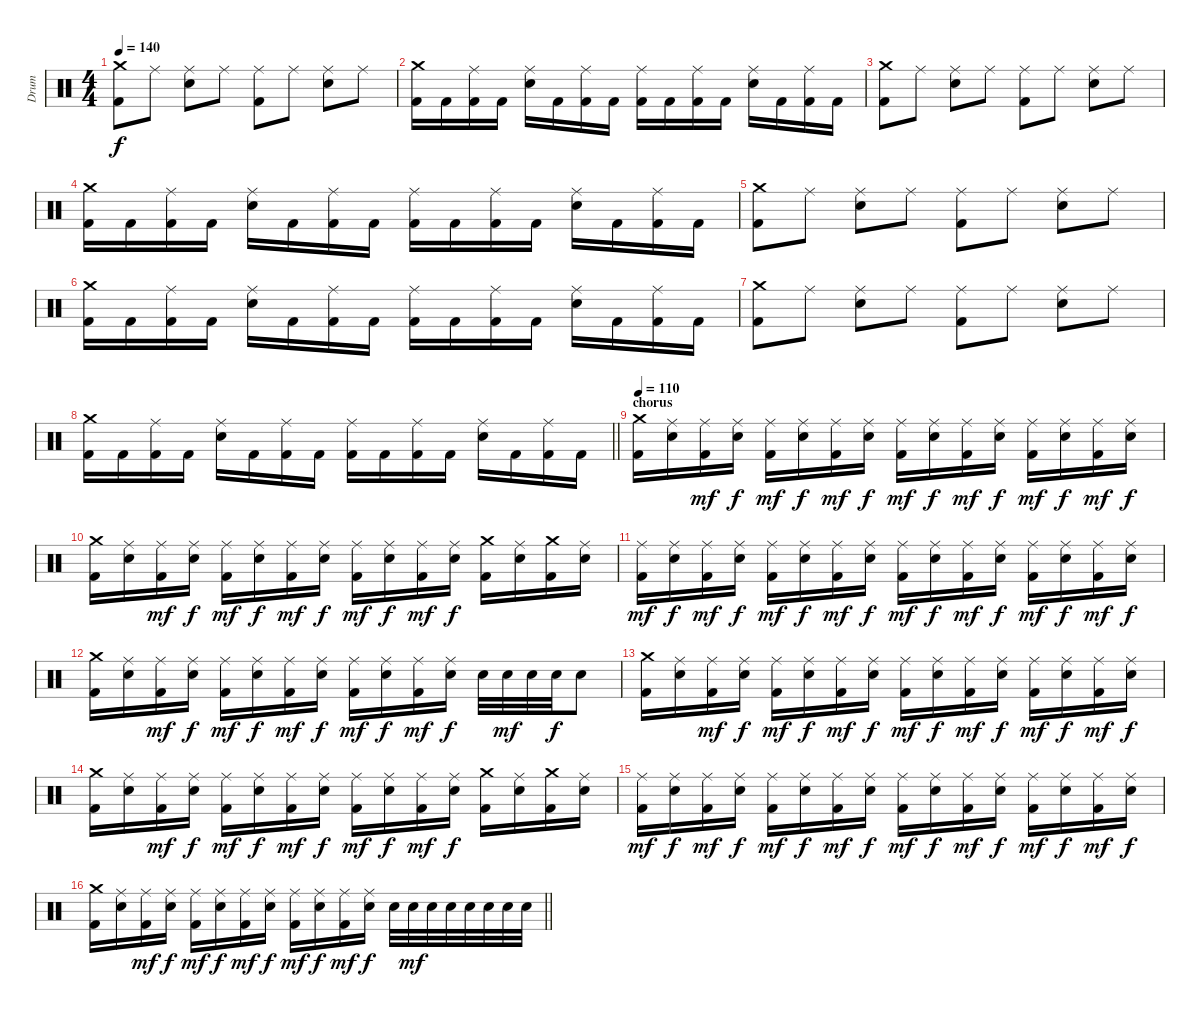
\track ("Drum" "Drum") {instrument percussion}
\staff {score}
\articulation defaults
\ts (4 4)
\tempo 140
\clef neutral
\ks c
("Crash medium (hit)" "Kick (hit) 2").8{dy f} "Ride (middle)".8 ("Ride (middle)" "Snare (hit) 2").8 "Ride (middle)".8 ("Ride (middle)" "Kick (hit) 2").8 "Ride (middle)".8 ("Ride (middle)" "Snare (hit) 2").8 "Ride (middle)".8 |
("Crash medium (hit)" "Kick (hit) 2").16 "Kick (hit) 2".16 ("Ride (middle)" "Kick (hit) 2").16 "Kick (hit) 2".16 ("Ride (middle)" "Snare (hit) 2").16 "Kick (hit) 2".16 ("Ride (middle)" "Kick (hit) 2").16 "Kick (hit) 2".16 ("Ride (middle)" "Kick (hit) 2").16 "Kick (hit) 2".16 ("Ride (middle)" "Kick (hit) 2").16 "Kick (hit) 2".16 ("Ride (middle)" "Snare (hit) 2").16 "Kick (hit) 2".16 ("Ride (middle)" "Kick (hit) 2").16 "Kick (hit) 2".16 |
("Crash medium (hit)" "Kick (hit) 2").8 "Ride (middle)".8 ("Ride (middle)" "Snare (hit) 2").8 "Ride (middle)".8 ("Ride (middle)" "Kick (hit) 2").8 "Ride (middle)".8 ("Ride (middle)" "Snare (hit) 2").8 "Ride (middle)".8 |
("Crash medium (hit)" "Kick (hit) 2").16 "Kick (hit) 2".16 ("Ride (middle)" "Kick (hit) 2").16 "Kick (hit) 2".16 ("Ride (middle)" "Snare (hit) 2").16 "Kick (hit) 2".16 ("Ride (middle)" "Kick (hit) 2").16 "Kick (hit) 2".16 ("Ride (middle)" "Kick (hit) 2").16 "Kick (hit) 2".16 ("Ride (middle)" "Kick (hit) 2").16 "Kick (hit) 2".16 ("Ride (middle)" "Snare (hit) 2").16 "Kick (hit) 2".16 ("Ride (middle)" "Kick (hit) 2").16 "Kick (hit) 2".16 |
("Crash medium (hit)" "Kick (hit) 2").8 "Ride (middle)".8 ("Ride (middle)" "Snare (hit) 2").8 "Ride (middle)".8 ("Ride (middle)" "Kick (hit) 2").8 "Ride (middle)".8 ("Ride (middle)" "Snare (hit) 2").8 "Ride (middle)".8 |
("Crash medium (hit)" "Kick (hit) 2").16 "Kick (hit) 2".16 ("Ride (middle)" "Kick (hit) 2").16 "Kick (hit) 2".16 ("Ride (middle)" "Snare (hit) 2").16 "Kick (hit) 2".16 ("Ride (middle)" "Kick (hit) 2").16 "Kick (hit) 2".16 ("Ride (middle)" "Kick (hit) 2").16 "Kick (hit) 2".16 ("Ride (middle)" "Kick (hit) 2").16 "Kick (hit) 2".16 ("Ride (middle)" "Snare (hit) 2").16 "Kick (hit) 2".16 ("Ride (middle)" "Kick (hit) 2").16 "Kick (hit) 2".16 |
("Crash medium (hit)" "Kick (hit) 2").8 "Ride (middle)".8 ("Ride (middle)" "Snare (hit) 2").8 "Ride (middle)".8 ("Ride (middle)" "Kick (hit) 2").8 "Ride (middle)".8 ("Ride (middle)" "Snare (hit) 2").8 "Ride (middle)".8 |
\barLineRight lightlight
("Crash medium (hit)" "Kick (hit) 2").16 "Kick (hit) 2".16 ("Ride (middle)" "Kick (hit) 2").16 "Kick (hit) 2".16 ("Ride (middle)" "Snare (hit) 2").16 "Kick (hit) 2".16 ("Ride (middle)" "Kick (hit) 2").16 "Kick (hit) 2".16 ("Ride (middle)" "Kick (hit) 2").16 "Kick (hit) 2".16 ("Ride (middle)" "Kick (hit) 2").16 "Kick (hit) 2".16 ("Ride (middle)" "Snare (hit) 2").16 "Kick (hit) 2".16 ("Ride (middle)" "Kick (hit) 2").16 "Kick (hit) 2".16 |
\section ("" "chorus")
\tempo 110
("Crash medium (hit)" "Kick (hit) 2").16 ("Ride (middle)" "Snare (hit) 2").16 ("Ride (middle)" "Kick (hit) 2").16{dy mf} ("Ride (middle)" "Snare (hit) 2").16{dy f} ("Ride (middle)" "Kick (hit) 2").16{dy mf} ("Ride (middle)" "Snare (hit) 2").16{dy f} ("Ride (middle)" "Kick (hit) 2").16{dy mf} ("Ride (middle)" "Snare (hit) 2").16{dy f} ("Ride (middle)" "Kick (hit) 2").16{dy mf} ("Ride (middle)" "Snare (hit) 2").16{dy f} ("Ride (middle)" "Kick (hit) 2").16{dy mf} ("Ride (middle)" "Snare (hit) 2").16{dy f} ("Ride (middle)" "Kick (hit) 2").16{dy mf} ("Ride (middle)" "Snare (hit) 2").16{dy f} ("Ride (middle)" "Kick (hit) 2").16{dy mf} ("Ride (middle)" "Snare (hit) 2").16{dy f} |
("Crash medium (hit)" "Kick (hit) 2").16 ("Ride (middle)" "Snare (hit) 2").16 ("Ride (middle)" "Kick (hit) 2").16{dy mf} ("Ride (middle)" "Snare (hit) 2").16{dy f} ("Ride (middle)" "Kick (hit) 2").16{dy mf} ("Ride (middle)" "Snare (hit) 2").16{dy f} ("Ride (middle)" "Kick (hit) 2").16{dy mf} ("Ride (middle)" "Snare (hit) 2").16{dy f} ("Ride (middle)" "Kick (hit) 2").16{dy mf} ("Ride (middle)" "Snare (hit) 2").16{dy f} ("Ride (middle)" "Kick (hit) 2").16{dy mf} ("Ride (middle)" "Snare (hit) 2").16{dy f} ("Crash medium (hit)" "Kick (hit) 2").16 ("Ride (middle)" "Snare (hit) 2").16 ("Crash medium (hit)" "Kick (hit) 2").16 ("Ride (middle)" "Snare (hit) 2").16 |
("Ride (middle)" "Kick (hit) 2").16{dy mf} ("Ride (middle)" "Snare (hit) 2").16{dy f} ("Ride (middle)" "Kick (hit) 2").16{dy mf} ("Ride (middle)" "Snare (hit) 2").16{dy f} ("Ride (middle)" "Kick (hit) 2").16{dy mf} ("Ride (middle)" "Snare (hit) 2").16{dy f} ("Ride (middle)" "Kick (hit) 2").16{dy mf} ("Ride (middle)" "Snare (hit) 2").16{dy f} ("Ride (middle)" "Kick (hit) 2").16{dy mf} ("Ride (middle)" "Snare (hit) 2").16{dy f} ("Ride (middle)" "Kick (hit) 2").16{dy mf} ("Ride (middle)" "Snare (hit) 2").16{dy f} ("Ride (middle)" "Kick (hit) 2").16{dy mf} ("Ride (middle)" "Snare (hit) 2").16{dy f} ("Ride (middle)" "Kick (hit) 2").16{dy mf} ("Ride (middle)" "Snare (hit) 2").16{dy f} |
("Crash medium (hit)" "Kick (hit) 2").16 ("Ride (middle)" "Snare (hit) 2").16 ("Ride (middle)" "Kick (hit) 2").16{dy mf} ("Ride (middle)" "Snare (hit) 2").16{dy f} ("Ride (middle)" "Kick (hit) 2").16{dy mf} ("Ride (middle)" "Snare (hit) 2").16{dy f} ("Ride (middle)" "Kick (hit) 2").16{dy mf} ("Ride (middle)" "Snare (hit) 2").16{dy f} ("Ride (middle)" "Kick (hit) 2").16{dy mf} ("Ride (middle)" "Snare (hit) 2").16{dy f} ("Ride (middle)" "Kick (hit) 2").16{dy mf} ("Ride (middle)" "Snare (hit) 2").16{dy f} "Snare (hit) 2".32 "Snare (hit) 2".32{dy mf} "Snare (hit) 2".32 "Snare (hit) 2".32{dy f} "Snare (hit) 2".8 |
("Crash medium (hit)" "Kick (hit) 2").16 ("Ride (middle)" "Snare (hit) 2").16 ("Ride (middle)" "Kick (hit) 2").16{dy mf} ("Ride (middle)" "Snare (hit) 2").16{dy f} ("Ride (middle)" "Kick (hit) 2").16{dy mf} ("Ride (middle)" "Snare (hit) 2").16{dy f} ("Ride (middle)" "Kick (hit) 2").16{dy mf} ("Ride (middle)" "Snare (hit) 2").16{dy f} ("Ride (middle)" "Kick (hit) 2").16{dy mf} ("Ride (middle)" "Snare (hit) 2").16{dy f} ("Ride (middle)" "Kick (hit) 2").16{dy mf} ("Ride (middle)" "Snare (hit) 2").16{dy f} ("Ride (middle)" "Kick (hit) 2").16{dy mf} ("Ride (middle)" "Snare (hit) 2").16{dy f} ("Ride (middle)" "Kick (hit) 2").16{dy mf} ("Ride (middle)" "Snare (hit) 2").16{dy f} |
("Crash medium (hit)" "Kick (hit) 2").16 ("Ride (middle)" "Snare (hit) 2").16 ("Ride (middle)" "Kick (hit) 2").16{dy mf} ("Ride (middle)" "Snare (hit) 2").16{dy f} ("Ride (middle)" "Kick (hit) 2").16{dy mf} ("Ride (middle)" "Snare (hit) 2").16{dy f} ("Ride (middle)" "Kick (hit) 2").16{dy mf} ("Ride (middle)" "Snare (hit) 2").16{dy f} ("Ride (middle)" "Kick (hit) 2").16{dy mf} ("Ride (middle)" "Snare (hit) 2").16{dy f} ("Ride (middle)" "Kick (hit) 2").16{dy mf} ("Ride (middle)" "Snare (hit) 2").16{dy f} ("Crash medium (hit)" "Kick (hit) 2").16 ("Ride (middle)" "Snare (hit) 2").16 ("Crash medium (hit)" "Kick (hit) 2").16 ("Ride (middle)" "Snare (hit) 2").16 |
("Ride (middle)" "Kick (hit) 2").16{dy mf} ("Ride (middle)" "Snare (hit) 2").16{dy f} ("Ride (middle)" "Kick (hit) 2").16{dy mf} ("Ride (middle)" "Snare (hit) 2").16{dy f} ("Ride (middle)" "Kick (hit) 2").16{dy mf} ("Ride (middle)" "Snare (hit) 2").16{dy f} ("Ride (middle)" "Kick (hit) 2").16{dy mf} ("Ride (middle)" "Snare (hit) 2").16{dy f} ("Ride (middle)" "Kick (hit) 2").16{dy mf} ("Ride (middle)" "Snare (hit) 2").16{dy f} ("Ride (middle)" "Kick (hit) 2").16{dy mf} ("Ride (middle)" "Snare (hit) 2").16{dy f} ("Ride (middle)" "Kick (hit) 2").16{dy mf} ("Ride (middle)" "Snare (hit) 2").16{dy f} ("Ride (middle)" "Kick (hit) 2").16{dy mf} ("Ride (middle)" "Snare (hit) 2").16{dy f} |
\barLineRight lightlight
("Crash medium (hit)" "Kick (hit) 2").16 ("Ride (middle)" "Snare (hit) 2").16 ("Ride (middle)" "Kick (hit) 2").16{dy mf} ("Ride (middle)" "Snare (hit) 2").16{dy f} ("Ride (middle)" "Kick (hit) 2").16{dy mf} ("Ride (middle)" "Snare (hit) 2").16{dy f} ("Ride (middle)" "Kick (hit) 2").16{dy mf} ("Ride (middle)" "Snare (hit) 2").16{dy f} ("Ride (middle)" "Kick (hit) 2").16{dy mf} ("Ride (middle)" "Snare (hit) 2").16{dy f} ("Ride (middle)" "Kick (hit) 2").16{dy mf} ("Ride (middle)" "Snare (hit) 2").16{dy f} "Snare (hit) 2".32 "Snare (hit) 2".32{dy mf} "Snare (hit) 2".32 "Snare (hit) 2".32 "Snare (hit) 2".32 "Snare (hit) 2".32 "Snare (hit) 2".32 "Snare (hit) 2".32
